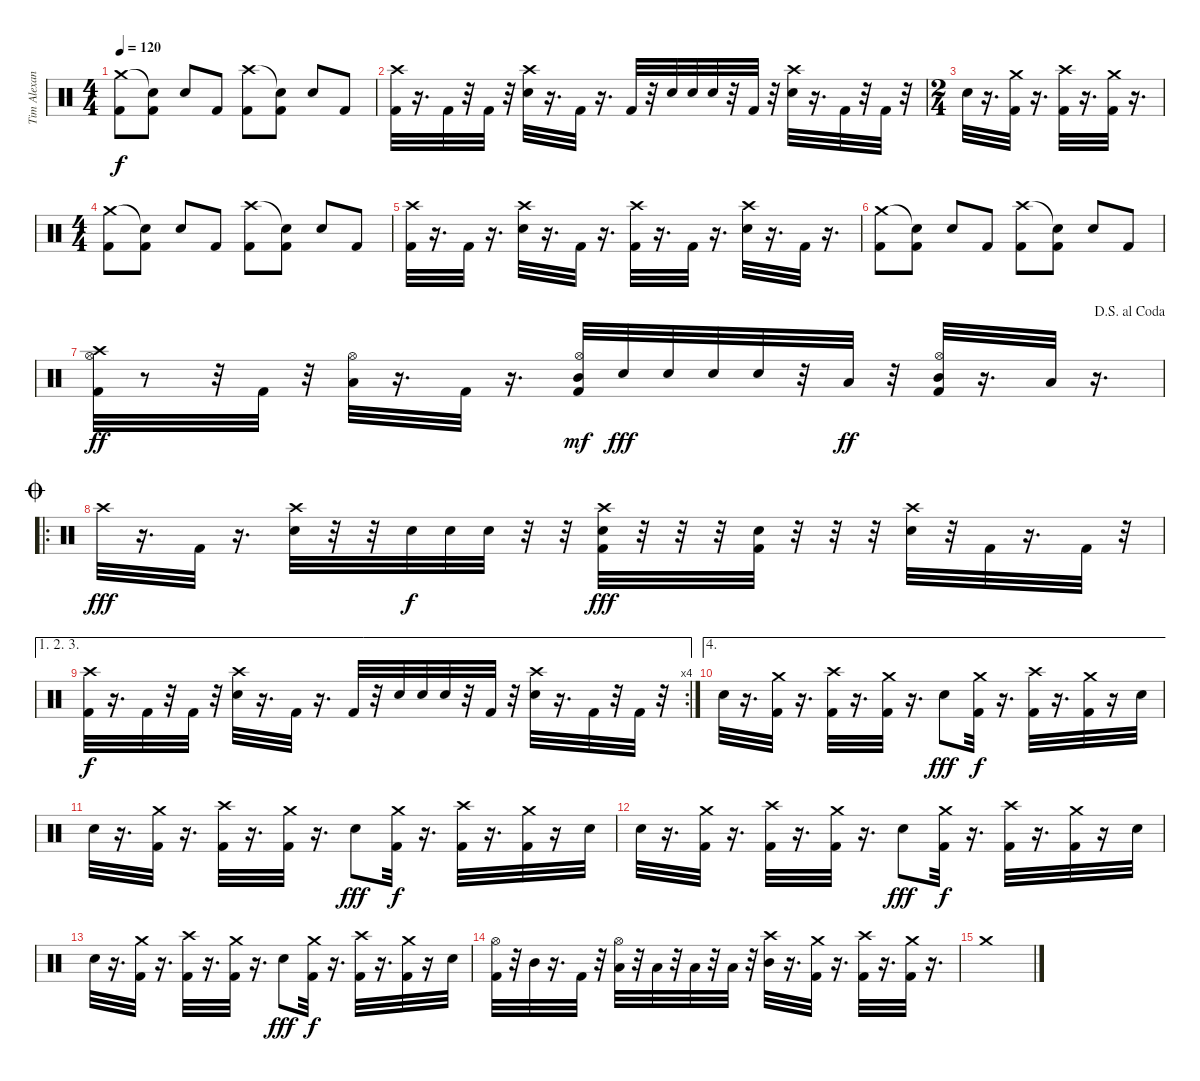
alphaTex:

\track ("Tim Alexander (Percussion)" "Tim Alexan") {instrument percussion}
\staff {score}
\articulation defaults
\ts (4 4)
\tempo 120
\clef neutral
\ks c
("Crash medium (hit)" "Kick (hit) 2").8{dy f} ("Snare (hit)"{t} "Kick (hit) 2").8 "Electric Snare (hit)".8 "Kick (hit) 2".8 ("Crash high (hit)" "Kick (hit) 2").8 ("Snare (hit)"{t} "Kick (hit) 2").8 "Electric Snare (hit)".8 "Kick (hit) 2".8 |
("Crash high (hit)" "Kick (hit) 2").32 r.16{d} "Kick (hit) 2".32 r.32 "Kick (hit) 2".32 r.32 ("Crash high (hit)" "Electric Snare (hit)").32 r.16{d} "Kick (hit) 2".32 r.16{d} "Kick (hit) 2".32 r.32 "Electric Snare (hit)".32 "Electric Snare (hit)".32 "Electric Snare (hit)".32 r.32 "Kick (hit) 2".32 r.32 ("Crash high (hit)" "Electric Snare (hit)").32 r.16{d} "Kick (hit) 2".32 r.32 "Kick (hit) 2".32 r.32 |
\ts (2 4)
"Electric Snare (hit)".32 r.16{d} ("Crash medium (hit)" "Kick (hit) 2").32 r.16{d} ("Crash high (hit)" "Kick (hit) 2").32 r.16{d} ("Crash medium (hit)" "Kick (hit) 2").32 r.16{d} |
\ts (4 4)
("Crash medium (hit)" "Kick (hit) 2").8 ("Snare (hit)"{t} "Kick (hit) 2").8 "Electric Snare (hit)".8 "Kick (hit) 2".8 ("Crash high (hit)" "Kick (hit) 2").8 ("Snare (hit)"{t} "Kick (hit) 2").8 "Electric Snare (hit)".8 "Kick (hit) 2".8 |
("Crash high (hit)" "Kick (hit) 2").32 r.16{d} "Kick (hit) 2".32 r.16{d} ("Crash high (hit)" "Electric Snare (hit)").32 r.16{d} "Kick (hit) 2".32 r.16{d} ("Crash high (hit)" "Kick (hit) 2").32 r.16{d} "Kick (hit) 2".32 r.16{d} ("Crash high (hit)" "Electric Snare (hit)").32 r.16{d} "Kick (hit) 2".32 r.16{d} |
("Crash medium (hit)" "Kick (hit) 2").8 ("Snare (hit)"{t} "Kick (hit) 2").8 "Electric Snare (hit)".8 "Kick (hit) 2".8 ("Crash high (hit)" "Kick (hit) 2").8 ("Snare (hit)"{t} "Kick (hit) 2").8 "Electric Snare (hit)".8 "Kick (hit) 2".8 |
\jump dalsegnoalcoda
("Crash high (hit)" "Hi-Hat (open)" "Kick (hit) 2").32{dy ff} r.8 r.32 "Kick (hit) 2".32 r.32 ("Hi-Hat (open)" "Low Tom (hit)").32 r.16{d} "Kick (hit) 2".32 r.16{d} ("Kick (hit) 2" "Hi-Hat (open)" "Mid Tom (hit)").32{dy mf} "Electric Snare (hit)".32{dy fff} "Electric Snare (hit)".32 "Electric Snare (hit)".32 "Electric Snare (hit)".32 r.32 "Low Tom (hit)".32{dy ff} r.32 ("Kick (hit) 2" "Hi-Hat (open)" "Mid Tom (hit)").32 r.16{d} "Low Tom (hit)".32 r.16{d} |
\ro
\jump coda "Crash high (hit)".32{dy fff}
r.16{d} "Kick (hit) 2".32 r.16{d} ("Crash high (hit)" "Electric Snare (hit)").32 r.32 r.32 "Electric Snare (hit)".32{dy f} "Electric Snare (hit)".32 "Electric Snare (hit)".32 r.32 r.32 ("Crash high (hit)" "Electric Snare (hit)" "Kick (hit) 2").32{dy fff} r.32 r.32 r.32 ("Electric Snare (hit)" "Kick (hit) 2").32 r.32 r.32 r.32 ("Crash high (hit)" "Electric Snare (hit)").32 r.32 "Kick (hit) 2".32 r.16{d} "Kick (hit) 2".32 r.32 |
\ae (1 2 3)
\rc 4
("Crash high (hit)" "Kick (hit) 2").32{dy f} r.16{d} "Kick (hit) 2".32 r.32 "Kick (hit) 2".32 r.32 ("Crash high (hit)" "Electric Snare (hit)").32 r.16{d} "Kick (hit) 2".32 r.16{d} "Kick (hit) 2".32 r.32 "Electric Snare (hit)".32 "Electric Snare (hit)".32 "Electric Snare (hit)".32 r.32 "Kick (hit) 2".32 r.32 ("Crash high (hit)" "Electric Snare (hit)").32 r.16{d} "Kick (hit) 2".32 r.32 "Kick (hit) 2".32 r.32 |
\ae 4 "Electric Snare (hit)".32
r.16{d} ("Crash medium (hit)" "Kick (hit) 2").32 r.16{d} ("Crash high (hit)" "Kick (hit) 2").32 r.16{d} ("Crash medium (hit)" "Kick (hit) 2").32 r.16{d} "Electric Snare (hit)".8{dy fff} ("Crash medium (hit)" "Kick (hit) 2").32{dy f} r.16{d} ("Crash high (hit)" "Kick (hit) 2").32 r.16{d} ("Crash medium (hit)" "Kick (hit) 2").32 r.16 "Electric Snare (hit)".32 |
"Electric Snare (hit)".32 r.16{d} ("Crash medium (hit)" "Kick (hit) 2").32 r.16{d} ("Crash high (hit)" "Kick (hit) 2").32 r.16{d} ("Crash medium (hit)" "Kick (hit) 2").32 r.16{d} "Electric Snare (hit)".8{dy fff} ("Crash medium (hit)" "Kick (hit) 2").32{dy f} r.16{d} ("Crash high (hit)" "Kick (hit) 2").32 r.16{d} ("Crash medium (hit)" "Kick (hit) 2").32 r.16 "Electric Snare (hit)".32 |
"Electric Snare (hit)".32 r.16{d} ("Crash medium (hit)" "Kick (hit) 2").32 r.16{d} ("Crash high (hit)" "Kick (hit) 2").32 r.16{d} ("Crash medium (hit)" "Kick (hit) 2").32 r.16{d} "Electric Snare (hit)".8{dy fff} ("Crash medium (hit)" "Kick (hit) 2").32{dy f} r.16{d} ("Crash high (hit)" "Kick (hit) 2").32 r.16{d} ("Crash medium (hit)" "Kick (hit) 2").32 r.16 "Electric Snare (hit)".32 |
"Electric Snare (hit)".32 r.16{d} ("Crash medium (hit)" "Kick (hit) 2").32 r.16{d} ("Crash high (hit)" "Kick (hit) 2").32 r.16{d} ("Crash medium (hit)" "Kick (hit) 2").32 r.16{d} "Electric Snare (hit)".8{dy fff} ("Crash medium (hit)" "Kick (hit) 2").32{dy f} r.16{d} ("Crash high (hit)" "Kick (hit) 2").32 r.16{d} ("Crash medium (hit)" "Kick (hit) 2").32 r.16 "Electric Snare (hit)".32 |
("Hi-Hat (open)" "Kick (hit) 2").32 r.32 "Mid Tom (hit)".32 r.16{d} "Kick (hit) 2".32 r.32 ("Hi-Hat (open)" "Low Tom (hit)").32 r.32 "Low Tom (hit)".32 r.32 "Low Floor Tom (hit)".32 r.32 "Low Floor Tom (hit)".32 r.32 ("Crash high (hit)" "Mid Tom (hit)").32 r.16{d} ("Kick (hit) 2" "Crash medium (hit)").32 r.16{d} ("Kick (hit) 2" "Crash high (hit)").32 r.16{d} ("Kick (hit) 2" "Crash medium (hit)").32 r.16{d} |
"Crash medium (hit)".1
